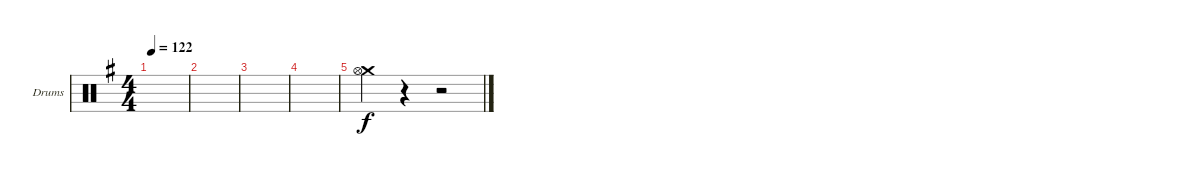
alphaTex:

\defaultSystemsLayout 4
\bracketExtendMode groupsimilarinstruments
\firstSystemTrackNameOrientation horizontal
\otherSystemsTrackNameOrientation horizontal
\track ("Drumkit" "Drums") {instrument percussion}
\staff {score}
\articulation defaults
\ts (4 4)
\tempo 122
\clef neutral
\ks g
|
|
|
|
("Crash medium (hit)" "Hi-Hat (open)").4 r.4 r.2
